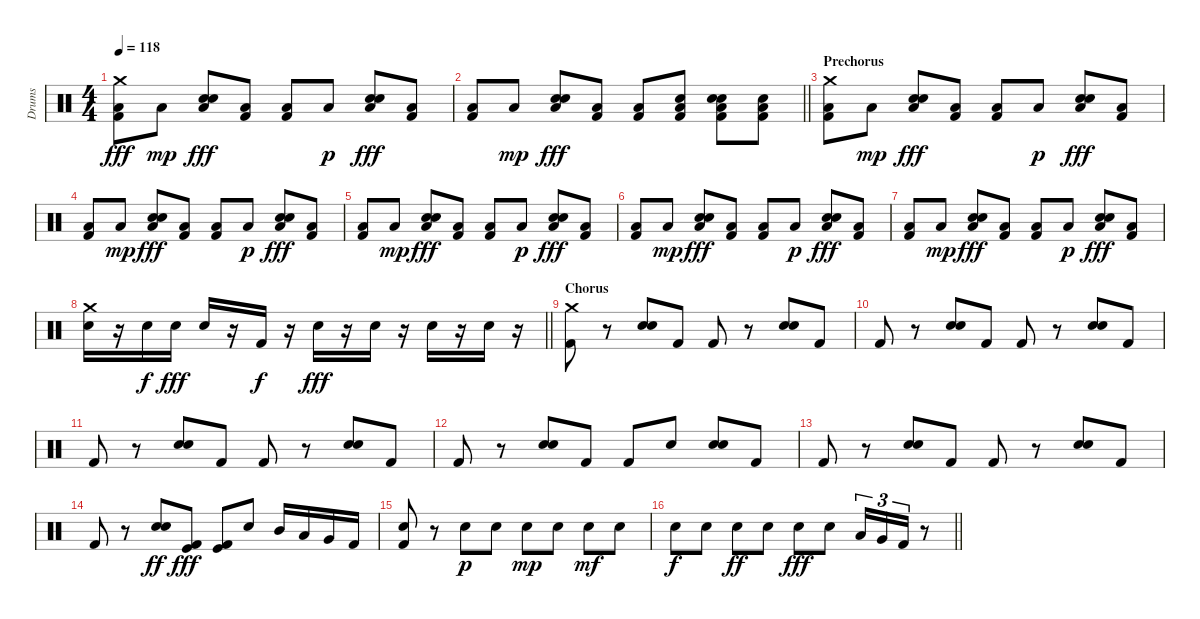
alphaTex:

\track ("Drums" "Drums") {instrument percussion}
\staff {score}
\articulation defaults
\ts (4 4)
\tempo 118
\clef neutral
\ks c
("Crash medium (hit)" "Low Floor Tom (hit)" "Kick (hit) 2").8{dy fff} "Low Floor Tom (hit)".8{dy mp} ("Hand Clap (hit)" "Snare (hit) 2" "Low Floor Tom (hit)").8{dy fff} ("Low Floor Tom (hit)" "Kick (hit) 2").8 ("Low Floor Tom (hit)" "Kick (hit) 2").8 "Low Floor Tom (hit)".8{dy p} ("Hand Clap (hit)" "Snare (hit) 2" "Low Floor Tom (hit)").8{dy fff} ("Low Floor Tom (hit)" "Kick (hit) 2").8 |
\barLineRight lightlight
("Low Floor Tom (hit)" "Kick (hit) 2").8 "Low Floor Tom (hit)".8{dy mp} ("Hand Clap (hit)" "Snare (hit) 2" "Low Floor Tom (hit)").8{dy fff} ("Low Floor Tom (hit)" "Kick (hit) 2").8 ("Low Floor Tom (hit)" "Kick (hit) 2").8 ("Snare (hit) 2" "Low Floor Tom (hit)" "Kick (hit) 2").8 ("Hand Clap (hit)" "Snare (hit) 2" "Low Floor Tom (hit)" "Kick (hit) 2").8 ("Snare (hit) 2" "Low Floor Tom (hit)" "Kick (hit) 2").8 |
\section ("" "Prechorus")
("Crash medium (hit)" "Low Floor Tom (hit)" "Kick (hit) 2").8 "Low Floor Tom (hit)".8{dy mp} ("Hand Clap (hit)" "Snare (hit) 2" "Low Floor Tom (hit)").8{dy fff} ("Low Floor Tom (hit)" "Kick (hit) 2").8 ("Low Floor Tom (hit)" "Kick (hit) 2").8 "Low Floor Tom (hit)".8{dy p} ("Hand Clap (hit)" "Snare (hit) 2" "Low Floor Tom (hit)").8{dy fff} ("Low Floor Tom (hit)" "Kick (hit) 2").8 |
("Low Floor Tom (hit)" "Kick (hit) 2").8 "Low Floor Tom (hit)".8{dy mp} ("Hand Clap (hit)" "Snare (hit) 2" "Low Floor Tom (hit)").8{dy fff} ("Low Floor Tom (hit)" "Kick (hit) 2").8 ("Low Floor Tom (hit)" "Kick (hit) 2").8 "Low Floor Tom (hit)".8{dy p} ("Hand Clap (hit)" "Snare (hit) 2" "Low Floor Tom (hit)").8{dy fff} ("Low Floor Tom (hit)" "Kick (hit) 2").8 |
("Low Floor Tom (hit)" "Kick (hit) 2").8 "Low Floor Tom (hit)".8{dy mp} ("Hand Clap (hit)" "Snare (hit) 2" "Low Floor Tom (hit)").8{dy fff} ("Low Floor Tom (hit)" "Kick (hit) 2").8 ("Low Floor Tom (hit)" "Kick (hit) 2").8 "Low Floor Tom (hit)".8{dy p} ("Hand Clap (hit)" "Snare (hit) 2" "Low Floor Tom (hit)").8{dy fff} ("Low Floor Tom (hit)" "Kick (hit) 2").8 |
("Low Floor Tom (hit)" "Kick (hit) 2").8 "Low Floor Tom (hit)".8{dy mp} ("Hand Clap (hit)" "Snare (hit) 2" "Low Floor Tom (hit)").8{dy fff} ("Low Floor Tom (hit)" "Kick (hit) 2").8 ("Low Floor Tom (hit)" "Kick (hit) 2").8 "Low Floor Tom (hit)".8{dy p} ("Hand Clap (hit)" "Snare (hit) 2" "Low Floor Tom (hit)").8{dy fff} ("Low Floor Tom (hit)" "Kick (hit) 2").8 |
("Low Floor Tom (hit)" "Kick (hit) 2").8 "Low Floor Tom (hit)".8{dy mp} ("Hand Clap (hit)" "Snare (hit) 2" "Low Floor Tom (hit)").8{dy fff} ("Low Floor Tom (hit)" "Kick (hit) 2").8 ("Low Floor Tom (hit)" "Kick (hit) 2").8 "Low Floor Tom (hit)".8{dy p} ("Hand Clap (hit)" "Snare (hit) 2" "Low Floor Tom (hit)").8{dy fff} ("Low Floor Tom (hit)" "Kick (hit) 2").8 |
\barLineRight lightlight
("Crash medium (hit)" "Snare (hit) 2").16 r.16 "Snare (hit) 2".16{dy f} "Snare (hit) 2".16{dy fff} "Snare (hit) 2".16 r.16 "Kick (hit) 2".16{dy f} r.16 "Snare (hit) 2".16{dy fff} r.16 "Snare (hit) 2".16 r.16 "Snare (hit) 2".16 r.16 "Snare (hit) 2".16 r.16 |
\section ("" "Chorus")
("Crash medium (hit)" "Kick (hit) 2").8 r.8 ("Hand Clap (hit)" "Snare (hit) 2").8 "Kick (hit) 2".8 "Kick (hit) 2".8 r.8 ("Hand Clap (hit)" "Snare (hit) 2").8 "Kick (hit) 2".8 |
"Kick (hit) 2".8 r.8 ("Hand Clap (hit)" "Snare (hit) 2").8 "Kick (hit) 2".8 "Kick (hit) 2".8 r.8 ("Hand Clap (hit)" "Snare (hit) 2").8 "Kick (hit) 2".8 |
"Kick (hit) 2".8 r.8 ("Hand Clap (hit)" "Snare (hit) 2").8 "Kick (hit) 2".8 "Kick (hit) 2".8 r.8 ("Hand Clap (hit)" "Snare (hit) 2").8 "Kick (hit) 2".8 |
"Kick (hit) 2".8 r.8 ("Hand Clap (hit)" "Snare (hit) 2").8 "Kick (hit) 2".8 "Kick (hit) 2".8 "Snare (hit) 2".8 ("Hand Clap (hit)" "Snare (hit) 2").8 "Kick (hit) 2".8 |
"Kick (hit) 2".8 r.8 ("Hand Clap (hit)" "Snare (hit) 2").8 "Kick (hit) 2".8 "Kick (hit) 2".8 r.8 ("Hand Clap (hit)" "Snare (hit) 2").8 "Kick (hit) 2".8 |
"Kick (hit) 2".8 r.8 ("Hand Clap (hit)" "Snare (hit) 2").8{dy ff} ("Kick (hit)" "Kick (hit) 2").8{dy fff} ("Kick (hit)" "Kick (hit) 2").8 "Snare (hit) 2".8 "Mid Tom (hit)".16 "Low Tom (hit)".16 "Very Low Tom (hit)".16 "Kick (hit) 2".16 |
("Snare (hit) 2" "Kick (hit) 2").8 r.8 "Snare (hit) 2".8{dy p} "Snare (hit) 2".8 "Snare (hit) 2".8{dy mp} "Snare (hit) 2".8 "Snare (hit) 2".8{dy mf} "Snare (hit) 2".8 |
\barLineRight lightlight "Snare (hit) 2".8{dy f} "Snare (hit) 2".8 "Snare (hit) 2".8{dy ff} "Snare (hit) 2".8 "Snare (hit) 2".8{dy fff} "Snare (hit) 2".8 "Low Tom (hit)".16{tu (3 2)} "Very Low Tom (hit)".16{tu (3 2)} "Kick (hit) 2".16{tu (3 2)}
r.8
